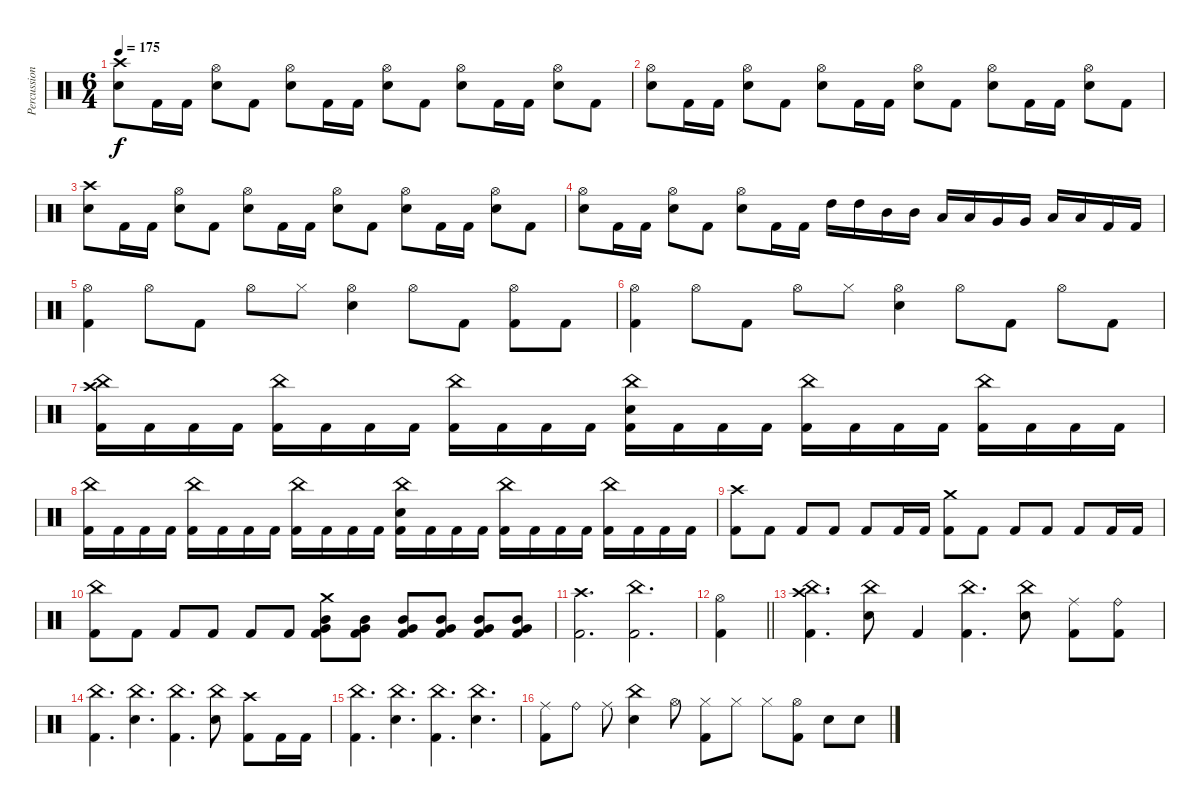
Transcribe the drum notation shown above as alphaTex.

\track ("Percussions" "Percussion") {instrument percussion}
\staff {score}
\articulation defaults
\ts (6 4)
\tempo 175
\clef neutral
\ks c
("Crash high (hit)" "Electric Snare (hit)").8{dy f} "Kick (hit) 2".16 "Kick (hit) 2".16 ("Hi-Hat (open)" "Electric Snare (hit)").8 "Kick (hit) 2".8 ("Hi-Hat (open)" "Electric Snare (hit)").8 "Kick (hit) 2".16 "Kick (hit) 2".16 ("Hi-Hat (open)" "Electric Snare (hit)").8 "Kick (hit) 2".8 ("Hi-Hat (open)" "Electric Snare (hit)").8 "Kick (hit) 2".16 "Kick (hit) 2".16 ("Hi-Hat (open)" "Electric Snare (hit)").8 "Kick (hit) 2".8 |
("Hi-Hat (open)" "Electric Snare (hit)").8 "Kick (hit) 2".16 "Kick (hit) 2".16 ("Hi-Hat (open)" "Electric Snare (hit)").8 "Kick (hit) 2".8 ("Hi-Hat (open)" "Electric Snare (hit)").8 "Kick (hit) 2".16 "Kick (hit) 2".16 ("Hi-Hat (open)" "Electric Snare (hit)").8 "Kick (hit) 2".8 ("Hi-Hat (open)" "Electric Snare (hit)").8 "Kick (hit) 2".16 "Kick (hit) 2".16 ("Hi-Hat (open)" "Electric Snare (hit)").8 "Kick (hit) 2".8 |
("Crash high (hit)" "Electric Snare (hit)").8 "Kick (hit) 2".16 "Kick (hit) 2".16 ("Hi-Hat (open)" "Electric Snare (hit)").8 "Kick (hit) 2".8 ("Hi-Hat (open)" "Electric Snare (hit)").8 "Kick (hit) 2".16 "Kick (hit) 2".16 ("Hi-Hat (open)" "Electric Snare (hit)").8 "Kick (hit) 2".8 ("Hi-Hat (open)" "Electric Snare (hit)").8 "Kick (hit) 2".16 "Kick (hit) 2".16 ("Hi-Hat (open)" "Electric Snare (hit)").8 "Kick (hit) 2".8 |
("Hi-Hat (open)" "Electric Snare (hit)").8 "Kick (hit) 2".16 "Kick (hit) 2".16 ("Hi-Hat (open)" "Electric Snare (hit)").8 "Kick (hit) 2".8 ("Hi-Hat (open)" "Electric Snare (hit)").8 "Kick (hit) 2".16 "Kick (hit) 2".16 "High Tom (hit)".16 "High Tom (hit)".16 "Mid Tom (hit)".16 "Mid Tom (hit)".16 "Low Tom (hit)".16 "Low Tom (hit)".16 "Very Low Tom (hit)".16 "Very Low Tom (hit)".16 "Low Floor Tom (hit)".16 "Low Floor Tom (hit)".16 "Kick (hit) 2".16 "Kick (hit) 2".16 |
("Hi-Hat (open)" "Kick (hit) 2").4 "Hi-Hat (open)".8 "Kick (hit) 2".8 "Hi-Hat (open)".8 "Hi-Hat (closed)".8 ("Hi-Hat (open)" "Electric Snare (hit)").4 "Hi-Hat (open)".8 "Kick (hit) 2".8 ("Hi-Hat (open)" "Kick (hit) 2").8 "Kick (hit) 2".8 |
("Hi-Hat (open)" "Kick (hit) 2").4 "Hi-Hat (open)".8 "Kick (hit) 2".8 "Hi-Hat (open)".8 "Hi-Hat (closed)".8 ("Hi-Hat (open)" "Electric Snare (hit)").4 "Hi-Hat (open)".8 "Kick (hit) 2".8 "Hi-Hat (open)".8 "Kick (hit) 2".8 |
("China (hit)" "Crash high (hit)" "Kick (hit) 2").16 "Kick (hit) 2".16 "Kick (hit) 2".16 "Kick (hit) 2".16 ("China (hit)" "Kick (hit) 2").16 "Kick (hit) 2".16 "Kick (hit) 2".16 "Kick (hit) 2".16 ("China (hit)" "Kick (hit) 2").16 "Kick (hit) 2".16 "Kick (hit) 2".16 "Kick (hit) 2".16 ("China (hit)" "Electric Snare (hit)" "Kick (hit) 2").16 "Kick (hit) 2".16 "Kick (hit) 2".16 "Kick (hit) 2".16 ("China (hit)" "Kick (hit) 2").16 "Kick (hit) 2".16 "Kick (hit) 2".16 "Kick (hit) 2".16 ("China (hit)" "Kick (hit) 2").16 "Kick (hit) 2".16 "Kick (hit) 2".16 "Kick (hit) 2".16 |
("China (hit)" "Kick (hit) 2").16 "Kick (hit) 2".16 "Kick (hit) 2".16 "Kick (hit) 2".16 ("China (hit)" "Kick (hit) 2").16 "Kick (hit) 2".16 "Kick (hit) 2".16 "Kick (hit) 2".16 ("China (hit)" "Kick (hit) 2").16 "Kick (hit) 2".16 "Kick (hit) 2".16 "Kick (hit) 2".16 ("China (hit)" "Electric Snare (hit)" "Kick (hit) 2").16 "Kick (hit) 2".16 "Kick (hit) 2".16 "Kick (hit) 2".16 ("China (hit)" "Kick (hit) 2").16 "Kick (hit) 2".16 "Kick (hit) 2".16 "Kick (hit) 2".16 ("China (hit)" "Kick (hit) 2").16 "Kick (hit) 2".16 "Kick (hit) 2".16 "Kick (hit) 2".16 |
("Crash high (hit)" "Kick (hit) 2").8 "Kick (hit) 2".8 "Kick (hit) 2".8 "Kick (hit) 2".8 "Kick (hit) 2".8 "Kick (hit) 2".16 "Kick (hit) 2".16 ("Crash medium (hit)" "Kick (hit) 2").8 "Kick (hit) 2".8 "Kick (hit) 2".8 "Kick (hit) 2".8 "Kick (hit) 2".8 "Kick (hit) 2".16 "Kick (hit) 2".16 |
("China (hit)" "Kick (hit) 2").8 "Kick (hit) 2".8 "Kick (hit) 2".8 "Kick (hit) 2".8 "Kick (hit) 2".8 "Kick (hit) 2".8 ("Crash medium (hit)" "Mid Tom (hit)" "Very Low Tom (hit)" "Kick (hit) 2").8 ("Mid Tom (hit)" "Very Low Tom (hit)" "Kick (hit) 2").8 ("Mid Tom (hit)" "Very Low Tom (hit)" "Kick (hit) 2").8 ("Mid Tom (hit)" "Very Low Tom (hit)" "Kick (hit) 2").8 ("Mid Tom (hit)" "Very Low Tom (hit)" "Kick (hit) 2").8 ("Mid Tom (hit)" "Very Low Tom (hit)" "Kick (hit) 2").8 |
("Crash high (hit)" "Kick (hit) 2").2{d} ("China (hit)" "Kick (hit) 2").2{d} |
\barLineRight lightlight
("Hi-Hat (open)" "Kick (hit) 2").4 |
("China (hit)" "Crash high (hit)" "Kick (hit) 2").4{d} ("China (hit)" "Electric Snare (hit)").8 "Kick (hit) 2".4 ("China (hit)" "Kick (hit) 2").4{d} ("China (hit)" "Electric Snare (hit)").8 ("Ride (middle)" "Kick (hit) 2").8 ("Ride (bell)" "Kick (hit) 2").8 |
("China (hit)" "Kick (hit) 2").4{d} ("China (hit)" "Electric Snare (hit)").4{d} ("China (hit)" "Kick (hit) 2").4{d} ("China (hit)" "Electric Snare (hit)").8 ("Crash high (hit)" "Kick (hit) 2").8 "Kick (hit) 2".16 "Kick (hit) 2".16 |
("China (hit)" "Kick (hit) 2").4{d} ("China (hit)" "Electric Snare (hit)").4{d} ("China (hit)" "Kick (hit) 2").4{d} ("China (hit)" "Electric Snare (hit)").4{d} |
("Ride (middle)" "Kick (hit) 2").8 "Ride (bell)".8 "Ride (middle)".8 ("China (hit)" "Electric Snare (hit)").4 "Hi-Hat (open)".8 ("Hi-Hat (closed)" "Kick (hit) 2").8 "Hi-Hat (closed)".8 "Hi-Hat (closed)".8 ("Hi-Hat (open)" "Kick (hit) 2").8 "Electric Snare (hit)".8 "Electric Snare (hit)".8
